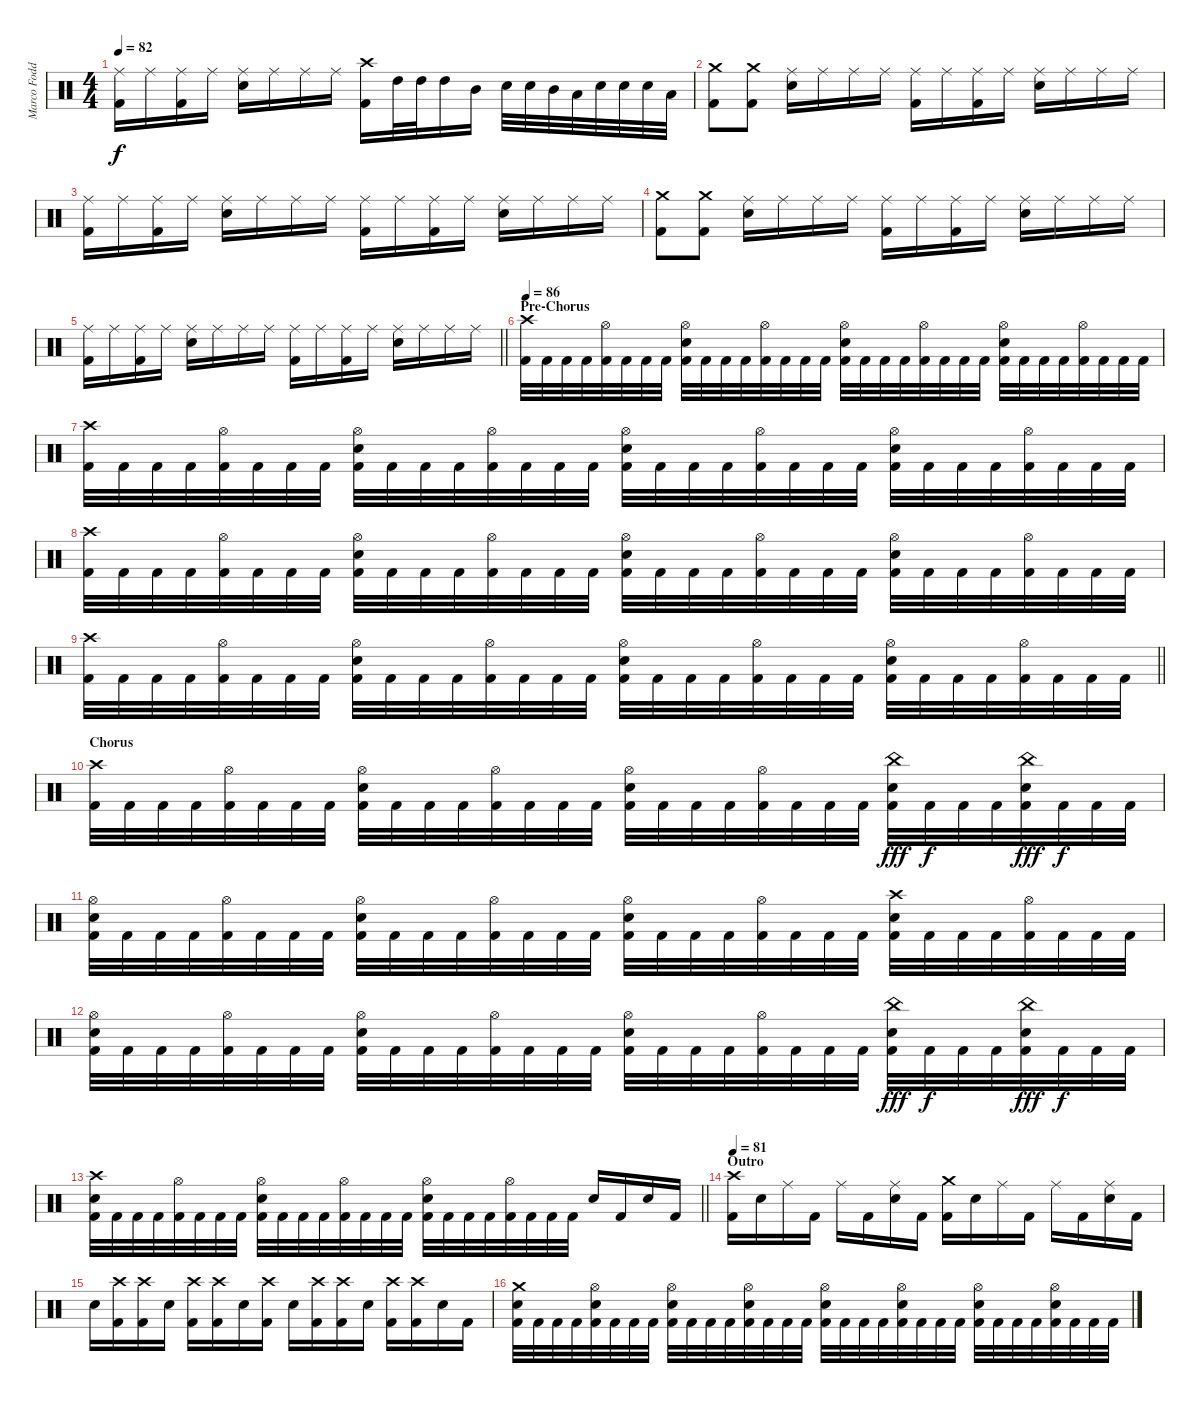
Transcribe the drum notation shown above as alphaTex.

\track ("Marco Foddis" "Marco Fodd") {instrument percussion}
\staff {score}
\articulation defaults
\ts (4 4)
\tempo 82
\clef neutral
\ks c
("Ride (middle)" "Kick (hit) 2").16{dy f} "Ride (middle)".16 ("Ride (middle)" "Kick (hit) 2").16 "Ride (middle)".16 ("Ride (middle)" "Electric Snare (hit)").16 "Ride (middle)".16 "Ride (middle)".16 "Ride (middle)".16 ("Crash high (hit)" "Kick (hit) 2").16 "High Tom (hit)".32 "High Tom (hit)".32 "High Tom (hit)".16 "Mid Tom (hit)".16 "Electric Snare (hit)".32 "Electric Snare (hit)".32 "Mid Tom (hit)".32 "Low Tom (hit)".32 "Electric Snare (hit)".32 "Electric Snare (hit)".32 "Electric Snare (hit)".32 "Low Tom (hit)".32 |
("Crash medium (hit)" "Kick (hit) 2").8 ("Crash medium (hit)" "Kick (hit) 2").8 ("Ride (middle)" "Electric Snare (hit)").16 "Ride (middle)".16 "Ride (middle)".16 "Ride (middle)".16 ("Ride (middle)" "Kick (hit) 2").16 "Ride (middle)".16 ("Ride (middle)" "Kick (hit) 2").16 "Ride (middle)".16 ("Ride (middle)" "Electric Snare (hit)").16 "Ride (middle)".16 "Ride (middle)".16 "Ride (middle)".16 |
("Ride (middle)" "Kick (hit) 2").16 "Ride (middle)".16 ("Ride (middle)" "Kick (hit) 2").16 "Ride (middle)".16 ("Ride (middle)" "Electric Snare (hit)").16 "Ride (middle)".16 "Ride (middle)".16 "Ride (middle)".16 ("Ride (middle)" "Kick (hit) 2").16 "Ride (middle)".16 ("Ride (middle)" "Kick (hit) 2").16 "Ride (middle)".16 ("Ride (middle)" "Electric Snare (hit)").16 "Ride (middle)".16 "Ride (middle)".16 "Ride (middle)".16 |
("Crash medium (hit)" "Kick (hit) 2").8 ("Crash medium (hit)" "Kick (hit) 2").8 ("Ride (middle)" "Electric Snare (hit)").16 "Ride (middle)".16 "Ride (middle)".16 "Ride (middle)".16 ("Ride (middle)" "Kick (hit) 2").16 "Ride (middle)".16 ("Ride (middle)" "Kick (hit) 2").16 "Ride (middle)".16 ("Ride (middle)" "Electric Snare (hit)").16 "Ride (middle)".16 "Ride (middle)".16 "Ride (middle)".16 |
\barLineRight lightlight
("Ride (middle)" "Kick (hit) 2").16 "Ride (middle)".16 ("Ride (middle)" "Kick (hit) 2").16 "Ride (middle)".16 ("Ride (middle)" "Electric Snare (hit)").16 "Ride (middle)".16 "Ride (middle)".16 "Ride (middle)".16 ("Ride (middle)" "Kick (hit) 2").16 "Ride (middle)".16 ("Ride (middle)" "Kick (hit) 2").16 "Ride (middle)".16 ("Ride (middle)" "Electric Snare (hit)").16 "Ride (middle)".16 "Ride (middle)".16 "Ride (middle)".16 |
\section ("" "Pre-Chorus")
\tempo 86
("Crash high (hit)" "Kick (hit) 2").32 "Kick (hit) 2".32 "Kick (hit) 2".32 "Kick (hit) 2".32 ("Hi-Hat (open)" "Kick (hit) 2").32 "Kick (hit) 2".32 "Kick (hit) 2".32 "Kick (hit) 2".32 ("Hi-Hat (open)" "Electric Snare (hit)" "Kick (hit) 2").32 "Kick (hit) 2".32 "Kick (hit) 2".32 "Kick (hit) 2".32 ("Hi-Hat (open)" "Kick (hit) 2").32 "Kick (hit) 2".32 "Kick (hit) 2".32 "Kick (hit) 2".32 ("Hi-Hat (open)" "Electric Snare (hit)" "Kick (hit) 2").32 "Kick (hit) 2".32 "Kick (hit) 2".32 "Kick (hit) 2".32 ("Hi-Hat (open)" "Kick (hit) 2").32 "Kick (hit) 2".32 "Kick (hit) 2".32 "Kick (hit) 2".32 ("Hi-Hat (open)" "Electric Snare (hit)" "Kick (hit) 2").32 "Kick (hit) 2".32 "Kick (hit) 2".32 "Kick (hit) 2".32 ("Hi-Hat (open)" "Kick (hit) 2").32 "Kick (hit) 2".32 "Kick (hit) 2".32 "Kick (hit) 2".32 |
("Crash high (hit)" "Kick (hit) 2").32 "Kick (hit) 2".32 "Kick (hit) 2".32 "Kick (hit) 2".32 ("Hi-Hat (open)" "Kick (hit) 2").32 "Kick (hit) 2".32 "Kick (hit) 2".32 "Kick (hit) 2".32 ("Hi-Hat (open)" "Electric Snare (hit)" "Kick (hit) 2").32 "Kick (hit) 2".32 "Kick (hit) 2".32 "Kick (hit) 2".32 ("Hi-Hat (open)" "Kick (hit) 2").32 "Kick (hit) 2".32 "Kick (hit) 2".32 "Kick (hit) 2".32 ("Hi-Hat (open)" "Electric Snare (hit)" "Kick (hit) 2").32 "Kick (hit) 2".32 "Kick (hit) 2".32 "Kick (hit) 2".32 ("Hi-Hat (open)" "Kick (hit) 2").32 "Kick (hit) 2".32 "Kick (hit) 2".32 "Kick (hit) 2".32 ("Hi-Hat (open)" "Electric Snare (hit)" "Kick (hit) 2").32 "Kick (hit) 2".32 "Kick (hit) 2".32 "Kick (hit) 2".32 ("Hi-Hat (open)" "Kick (hit) 2").32 "Kick (hit) 2".32 "Kick (hit) 2".32 "Kick (hit) 2".32 |
("Crash high (hit)" "Kick (hit) 2").32 "Kick (hit) 2".32 "Kick (hit) 2".32 "Kick (hit) 2".32 ("Hi-Hat (open)" "Kick (hit) 2").32 "Kick (hit) 2".32 "Kick (hit) 2".32 "Kick (hit) 2".32 ("Hi-Hat (open)" "Electric Snare (hit)" "Kick (hit) 2").32 "Kick (hit) 2".32 "Kick (hit) 2".32 "Kick (hit) 2".32 ("Hi-Hat (open)" "Kick (hit) 2").32 "Kick (hit) 2".32 "Kick (hit) 2".32 "Kick (hit) 2".32 ("Hi-Hat (open)" "Electric Snare (hit)" "Kick (hit) 2").32 "Kick (hit) 2".32 "Kick (hit) 2".32 "Kick (hit) 2".32 ("Hi-Hat (open)" "Kick (hit) 2").32 "Kick (hit) 2".32 "Kick (hit) 2".32 "Kick (hit) 2".32 ("Hi-Hat (open)" "Electric Snare (hit)" "Kick (hit) 2").32 "Kick (hit) 2".32 "Kick (hit) 2".32 "Kick (hit) 2".32 ("Hi-Hat (open)" "Kick (hit) 2").32 "Kick (hit) 2".32 "Kick (hit) 2".32 "Kick (hit) 2".32 |
\barLineRight lightlight
("Crash high (hit)" "Kick (hit) 2").32 "Kick (hit) 2".32 "Kick (hit) 2".32 "Kick (hit) 2".32 ("Hi-Hat (open)" "Kick (hit) 2").32 "Kick (hit) 2".32 "Kick (hit) 2".32 "Kick (hit) 2".32 ("Hi-Hat (open)" "Electric Snare (hit)" "Kick (hit) 2").32 "Kick (hit) 2".32 "Kick (hit) 2".32 "Kick (hit) 2".32 ("Hi-Hat (open)" "Kick (hit) 2").32 "Kick (hit) 2".32 "Kick (hit) 2".32 "Kick (hit) 2".32 ("Hi-Hat (open)" "Electric Snare (hit)" "Kick (hit) 2").32 "Kick (hit) 2".32 "Kick (hit) 2".32 "Kick (hit) 2".32 ("Hi-Hat (open)" "Kick (hit) 2").32 "Kick (hit) 2".32 "Kick (hit) 2".32 "Kick (hit) 2".32 ("Hi-Hat (open)" "Electric Snare (hit)" "Kick (hit) 2").32 "Kick (hit) 2".32 "Kick (hit) 2".32 "Kick (hit) 2".32 ("Hi-Hat (open)" "Kick (hit) 2").32 "Kick (hit) 2".32 "Kick (hit) 2".32 "Kick (hit) 2".32 |
\section ("" "Chorus")
("Crash high (hit)" "Kick (hit) 2").32 "Kick (hit) 2".32 "Kick (hit) 2".32 "Kick (hit) 2".32 ("Hi-Hat (open)" "Kick (hit) 2").32 "Kick (hit) 2".32 "Kick (hit) 2".32 "Kick (hit) 2".32 ("Hi-Hat (open)" "Electric Snare (hit)" "Kick (hit) 2").32 "Kick (hit) 2".32 "Kick (hit) 2".32 "Kick (hit) 2".32 ("Hi-Hat (open)" "Kick (hit) 2").32 "Kick (hit) 2".32 "Kick (hit) 2".32 "Kick (hit) 2".32 ("Hi-Hat (open)" "Electric Snare (hit)" "Kick (hit) 2").32 "Kick (hit) 2".32 "Kick (hit) 2".32 "Kick (hit) 2".32 ("Hi-Hat (open)" "Kick (hit) 2").32 "Kick (hit) 2".32 "Kick (hit) 2".32 "Kick (hit) 2".32 ("China (hit)" "Electric Snare (hit)" "Kick (hit) 2").32{dy fff} "Kick (hit) 2".32{dy f} "Kick (hit) 2".32 "Kick (hit) 2".32 ("China (hit)" "Electric Snare (hit)" "Kick (hit) 2").32{dy fff} "Kick (hit) 2".32{dy f} "Kick (hit) 2".32 "Kick (hit) 2".32 |
("Hi-Hat (open)" "Electric Snare (hit)" "Kick (hit) 2").32 "Kick (hit) 2".32 "Kick (hit) 2".32 "Kick (hit) 2".32 ("Hi-Hat (open)" "Kick (hit) 2").32 "Kick (hit) 2".32 "Kick (hit) 2".32 "Kick (hit) 2".32 ("Hi-Hat (open)" "Electric Snare (hit)" "Kick (hit) 2").32 "Kick (hit) 2".32 "Kick (hit) 2".32 "Kick (hit) 2".32 ("Hi-Hat (open)" "Kick (hit) 2").32 "Kick (hit) 2".32 "Kick (hit) 2".32 "Kick (hit) 2".32 ("Hi-Hat (open)" "Electric Snare (hit)" "Kick (hit) 2").32 "Kick (hit) 2".32 "Kick (hit) 2".32 "Kick (hit) 2".32 ("Hi-Hat (open)" "Kick (hit) 2").32 "Kick (hit) 2".32 "Kick (hit) 2".32 "Kick (hit) 2".32 ("Crash high (hit)" "Electric Snare (hit)" "Kick (hit) 2").32 "Kick (hit) 2".32 "Kick (hit) 2".32 "Kick (hit) 2".32 ("Hi-Hat (open)" "Kick (hit) 2").32 "Kick (hit) 2".32 "Kick (hit) 2".32 "Kick (hit) 2".32 |
("Hi-Hat (open)" "Electric Snare (hit)" "Kick (hit) 2").32 "Kick (hit) 2".32 "Kick (hit) 2".32 "Kick (hit) 2".32 ("Hi-Hat (open)" "Kick (hit) 2").32 "Kick (hit) 2".32 "Kick (hit) 2".32 "Kick (hit) 2".32 ("Hi-Hat (open)" "Electric Snare (hit)" "Kick (hit) 2").32 "Kick (hit) 2".32 "Kick (hit) 2".32 "Kick (hit) 2".32 ("Hi-Hat (open)" "Kick (hit) 2").32 "Kick (hit) 2".32 "Kick (hit) 2".32 "Kick (hit) 2".32 ("Hi-Hat (open)" "Electric Snare (hit)" "Kick (hit) 2").32 "Kick (hit) 2".32 "Kick (hit) 2".32 "Kick (hit) 2".32 ("Hi-Hat (open)" "Kick (hit) 2").32 "Kick (hit) 2".32 "Kick (hit) 2".32 "Kick (hit) 2".32 ("China (hit)" "Electric Snare (hit)" "Kick (hit) 2").32{dy fff} "Kick (hit) 2".32{dy f} "Kick (hit) 2".32 "Kick (hit) 2".32 ("China (hit)" "Electric Snare (hit)" "Kick (hit) 2").32{dy fff} "Kick (hit) 2".32{dy f} "Kick (hit) 2".32 "Kick (hit) 2".32 |
\barLineRight lightlight
("Crash high (hit)" "Electric Snare (hit)" "Kick (hit) 2").32 "Kick (hit) 2".32 "Kick (hit) 2".32 "Kick (hit) 2".32 ("Hi-Hat (open)" "Kick (hit) 2").32 "Kick (hit) 2".32 "Kick (hit) 2".32 "Kick (hit) 2".32 ("Hi-Hat (open)" "Electric Snare (hit)" "Kick (hit) 2").32 "Kick (hit) 2".32 "Kick (hit) 2".32 "Kick (hit) 2".32 ("Hi-Hat (open)" "Kick (hit) 2").32 "Kick (hit) 2".32 "Kick (hit) 2".32 "Kick (hit) 2".32 ("Hi-Hat (open)" "Electric Snare (hit)" "Kick (hit) 2").32 "Kick (hit) 2".32 "Kick (hit) 2".32 "Kick (hit) 2".32 ("Hi-Hat (open)" "Kick (hit) 2").32 "Kick (hit) 2".32 "Kick (hit) 2".32 "Kick (hit) 2".32 "Electric Snare (hit)".16 "Kick (hit) 2".16 "Electric Snare (hit)".16 "Kick (hit) 2".16 |
\section ("" "Outro")
\tempo 81
("Crash high (hit)" "Kick (hit) 2").16 "Electric Snare (hit)".16 "Ride (middle)".16 "Kick (hit) 2".16 "Ride (middle)".16 "Kick (hit) 2".16 ("Ride (middle)" "Electric Snare (hit)").16 "Kick (hit) 2".16 ("Crash medium (hit)" "Kick (hit) 2").16 "Electric Snare (hit)".16 "Ride (middle)".16 "Kick (hit) 2".16 "Ride (middle)".16 "Kick (hit) 2".16 ("Ride (middle)" "Electric Snare (hit)").16 "Kick (hit) 2".16 |
"Electric Snare (hit)".16 ("Crash high (hit)" "Kick (hit) 2").16 ("Crash high (hit)" "Kick (hit) 2").16 "Electric Snare (hit)".16 ("Crash high (hit)" "Kick (hit) 2").16 ("Crash high (hit)" "Kick (hit) 2").16 "Electric Snare (hit)".16 ("Crash high (hit)" "Kick (hit) 2").16 "Electric Snare (hit)".16 ("Crash high (hit)" "Kick (hit) 2").16 ("Crash high (hit)" "Kick (hit) 2").16 "Electric Snare (hit)".16 ("Crash high (hit)" "Kick (hit) 2").16 ("Crash high (hit)" "Kick (hit) 2").16 "Electric Snare (hit)".16 "Kick (hit) 2".16 |
("Crash medium (hit)" "Electric Snare (hit)" "Kick (hit) 2").32 "Kick (hit) 2".32 "Kick (hit) 2".32 "Kick (hit) 2".32 ("Hi-Hat (open)" "Electric Snare (hit)" "Kick (hit) 2").32 "Kick (hit) 2".32 "Kick (hit) 2".32 "Kick (hit) 2".32 ("Hi-Hat (open)" "Electric Snare (hit)" "Kick (hit) 2").32 "Kick (hit) 2".32 "Kick (hit) 2".32 "Kick (hit) 2".32 ("Hi-Hat (open)" "Electric Snare (hit)" "Kick (hit) 2").32 "Kick (hit) 2".32 "Kick (hit) 2".32 "Kick (hit) 2".32 ("Hi-Hat (open)" "Electric Snare (hit)" "Kick (hit) 2").32 "Kick (hit) 2".32 "Kick (hit) 2".32 "Kick (hit) 2".32 ("Hi-Hat (open)" "Electric Snare (hit)" "Kick (hit) 2").32 "Kick (hit) 2".32 "Kick (hit) 2".32 "Kick (hit) 2".32 ("Hi-Hat (open)" "Electric Snare (hit)" "Kick (hit) 2").32 "Kick (hit) 2".32 "Kick (hit) 2".32 "Kick (hit) 2".32 ("Hi-Hat (open)" "Electric Snare (hit)" "Kick (hit) 2").32 "Kick (hit) 2".32 "Kick (hit) 2".32 "Kick (hit) 2".32
